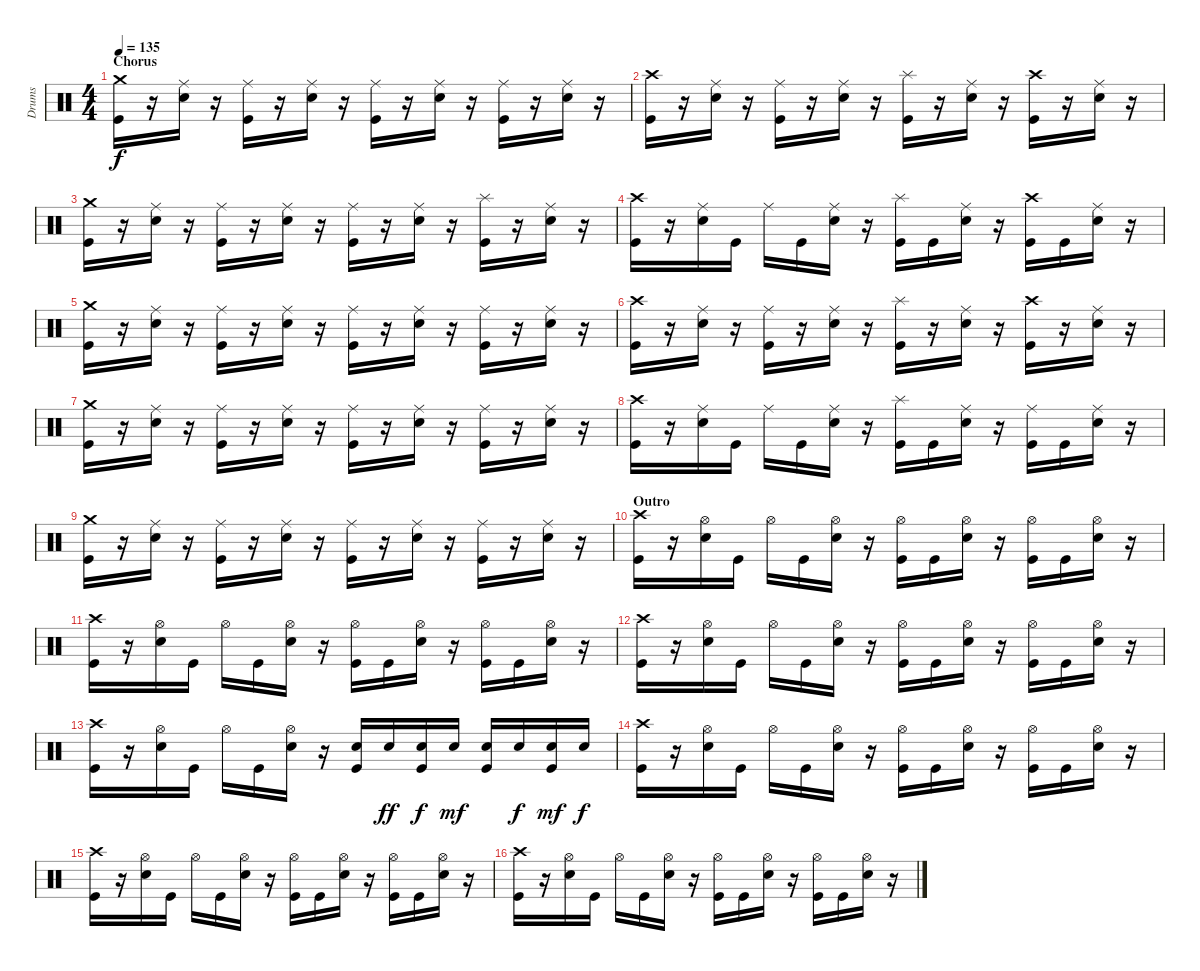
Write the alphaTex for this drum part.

\track ("Drums" "Drums") {instrument percussion}
\staff {score}
\articulation defaults
\ts (4 4)
\section ("" "Chorus")
\tempo 135
\clef neutral
\ks c
("Crash medium (hit)" "Kick (hit)").16{dy f} r.16 ("Ride (middle)" "Snare (hit) 2").16 r.16 ("Ride (middle)" "Kick (hit)").16 r.16 ("Ride (middle)" "Snare (hit) 2").16 r.16 ("Ride (middle)" "Kick (hit)").16 r.16 ("Ride (middle)" "Snare (hit) 2").16 r.16 ("Ride (middle)" "Kick (hit)").16 r.16 ("Ride (middle)" "Snare (hit) 2").16 r.16 |
("Crash high (hit)" "Kick (hit)").16 r.16 ("Ride (middle)" "Snare (hit) 2").16 r.16 ("Ride (middle)" "Kick (hit)").16 r.16 ("Ride (middle)" "Snare (hit) 2").16 r.16 ("Splash (hit)" "Kick (hit)").16 r.16 ("Ride (middle)" "Snare (hit) 2").16 r.16 ("Crash high (hit)" "Kick (hit)").16 r.16 ("Ride (middle)" "Snare (hit) 2").16 r.16 |
("Crash medium (hit)" "Kick (hit)").16 r.16 ("Ride (middle)" "Snare (hit) 2").16 r.16 ("Ride (middle)" "Kick (hit)").16 r.16 ("Ride (middle)" "Snare (hit) 2").16 r.16 ("Ride (middle)" "Kick (hit)").16 r.16 ("Ride (middle)" "Snare (hit) 2").16 r.16 ("Splash (hit)" "Kick (hit)").16 r.16 ("Ride (middle)" "Snare (hit) 2").16 r.16 |
("Crash high (hit)" "Kick (hit)").16 r.16 ("Ride (middle)" "Snare (hit) 2").16 "Kick (hit)".16 "Ride (middle)".16 "Kick (hit)".16 ("Ride (middle)" "Snare (hit) 2").16 r.16 ("Splash (hit)" "Kick (hit)").16 "Kick (hit)".16 ("Ride (middle)" "Snare (hit) 2").16 r.16 ("Crash high (hit)" "Kick (hit)").16 "Kick (hit)".16 ("Ride (middle)" "Snare (hit) 2").16 r.16 |
("Crash medium (hit)" "Kick (hit)").16 r.16 ("Ride (middle)" "Snare (hit) 2").16 r.16 ("Ride (middle)" "Kick (hit)").16 r.16 ("Ride (middle)" "Snare (hit) 2").16 r.16 ("Ride (middle)" "Kick (hit)").16 r.16 ("Ride (middle)" "Snare (hit) 2").16 r.16 ("Ride (middle)" "Kick (hit)").16 r.16 ("Ride (middle)" "Snare (hit) 2").16 r.16 |
("Crash high (hit)" "Kick (hit)").16 r.16 ("Ride (middle)" "Snare (hit) 2").16 r.16 ("Ride (middle)" "Kick (hit)").16 r.16 ("Ride (middle)" "Snare (hit) 2").16 r.16 ("Splash (hit)" "Kick (hit)").16 r.16 ("Ride (middle)" "Snare (hit) 2").16 r.16 ("Crash high (hit)" "Kick (hit)").16 r.16 ("Ride (middle)" "Snare (hit) 2").16 r.16 |
("Crash medium (hit)" "Kick (hit)").16 r.16 ("Ride (middle)" "Snare (hit) 2").16 r.16 ("Ride (middle)" "Kick (hit)").16 r.16 ("Ride (middle)" "Snare (hit) 2").16 r.16 ("Ride (middle)" "Kick (hit)").16 r.16 ("Ride (middle)" "Snare (hit) 2").16 r.16 ("Ride (middle)" "Kick (hit)").16 r.16 ("Ride (middle)" "Snare (hit) 2").16 r.16 |
("Crash high (hit)" "Kick (hit)").16 r.16 ("Ride (middle)" "Snare (hit) 2").16 "Kick (hit)".16 "Ride (middle)".16 "Kick (hit)".16 ("Ride (middle)" "Snare (hit) 2").16 r.16 ("Splash (hit)" "Kick (hit)").16 "Kick (hit)".16 ("Ride (middle)" "Snare (hit) 2").16 r.16 ("Ride (middle)" "Kick (hit)").16 "Kick (hit)".16 ("Ride (middle)" "Snare (hit) 2").16 r.16 |
("Crash medium (hit)" "Kick (hit)").16 r.16 ("Ride (middle)" "Snare (hit) 2").16 r.16 ("Ride (middle)" "Kick (hit)").16 r.16 ("Ride (middle)" "Snare (hit) 2").16 r.16 ("Ride (middle)" "Kick (hit)").16 r.16 ("Ride (middle)" "Snare (hit) 2").16 r.16 ("Ride (middle)" "Kick (hit)").16 r.16 ("Ride (middle)" "Snare (hit) 2").16 r.16 |
\section ("" "Outro")
("Crash high (hit)" "Kick (hit)").16 r.16 ("Hi-Hat (open)" "Snare (hit) 2").16 "Kick (hit)".16 "Hi-Hat (open)".16 "Kick (hit)".16 ("Hi-Hat (open)" "Snare (hit) 2").16 r.16 ("Hi-Hat (open)" "Kick (hit)").16 "Kick (hit)".16 ("Hi-Hat (open)" "Snare (hit) 2").16 r.16 ("Hi-Hat (open)" "Kick (hit)").16 "Kick (hit)".16 ("Hi-Hat (open)" "Snare (hit) 2").16 r.16 |
("Crash high (hit)" "Kick (hit)").16 r.16 ("Hi-Hat (open)" "Snare (hit) 2").16 "Kick (hit)".16 "Hi-Hat (open)".16 "Kick (hit)".16 ("Hi-Hat (open)" "Snare (hit) 2").16 r.16 ("Hi-Hat (open)" "Kick (hit)").16 "Kick (hit)".16 ("Hi-Hat (open)" "Snare (hit) 2").16 r.16 ("Hi-Hat (open)" "Kick (hit)").16 "Kick (hit)".16 ("Hi-Hat (open)" "Snare (hit) 2").16 r.16 |
("Crash high (hit)" "Kick (hit)").16 r.16 ("Hi-Hat (open)" "Snare (hit) 2").16 "Kick (hit)".16 "Hi-Hat (open)".16 "Kick (hit)".16 ("Hi-Hat (open)" "Snare (hit) 2").16 r.16 ("Hi-Hat (open)" "Kick (hit)").16 "Kick (hit)".16 ("Hi-Hat (open)" "Snare (hit) 2").16 r.16 ("Hi-Hat (open)" "Kick (hit)").16 "Kick (hit)".16 ("Hi-Hat (open)" "Snare (hit) 2").16 r.16 |
("Crash high (hit)" "Kick (hit)").16 r.16 ("Hi-Hat (open)" "Snare (hit) 2").16 "Kick (hit)".16 "Hi-Hat (open)".16 "Kick (hit)".16 ("Hi-Hat (open)" "Snare (hit) 2").16 r.16 ("Snare (hit) 2" "Kick (hit)").16 "Snare (hit) 2".16{dy ff} ("Snare (hit) 2" "Kick (hit)").16{dy f} "Snare (hit) 2".16{dy mf} ("Snare (hit) 2" "Kick (hit)").16 "Snare (hit) 2".16{dy f} ("Snare (hit) 2" "Kick (hit)").16{dy mf} "Snare (hit) 2".16{dy f} |
("Crash high (hit)" "Kick (hit)").16 r.16 ("Hi-Hat (open)" "Snare (hit) 2").16 "Kick (hit)".16 "Hi-Hat (open)".16 "Kick (hit)".16 ("Hi-Hat (open)" "Snare (hit) 2").16 r.16 ("Hi-Hat (open)" "Kick (hit)").16 "Kick (hit)".16 ("Hi-Hat (open)" "Snare (hit) 2").16 r.16 ("Hi-Hat (open)" "Kick (hit)").16 "Kick (hit)".16 ("Hi-Hat (open)" "Snare (hit) 2").16 r.16 |
("Crash high (hit)" "Kick (hit)").16 r.16 ("Hi-Hat (open)" "Snare (hit) 2").16 "Kick (hit)".16 "Hi-Hat (open)".16 "Kick (hit)".16 ("Hi-Hat (open)" "Snare (hit) 2").16 r.16 ("Hi-Hat (open)" "Kick (hit)").16 "Kick (hit)".16 ("Hi-Hat (open)" "Snare (hit) 2").16 r.16 ("Hi-Hat (open)" "Kick (hit)").16 "Kick (hit)".16 ("Hi-Hat (open)" "Snare (hit) 2").16 r.16 |
("Crash high (hit)" "Kick (hit)").16 r.16 ("Hi-Hat (open)" "Snare (hit) 2").16 "Kick (hit)".16 "Hi-Hat (open)".16 "Kick (hit)".16 ("Hi-Hat (open)" "Snare (hit) 2").16 r.16 ("Hi-Hat (open)" "Kick (hit)").16 "Kick (hit)".16 ("Hi-Hat (open)" "Snare (hit) 2").16 r.16 ("Hi-Hat (open)" "Kick (hit)").16 "Kick (hit)".16 ("Hi-Hat (open)" "Snare (hit) 2").16 r.16
